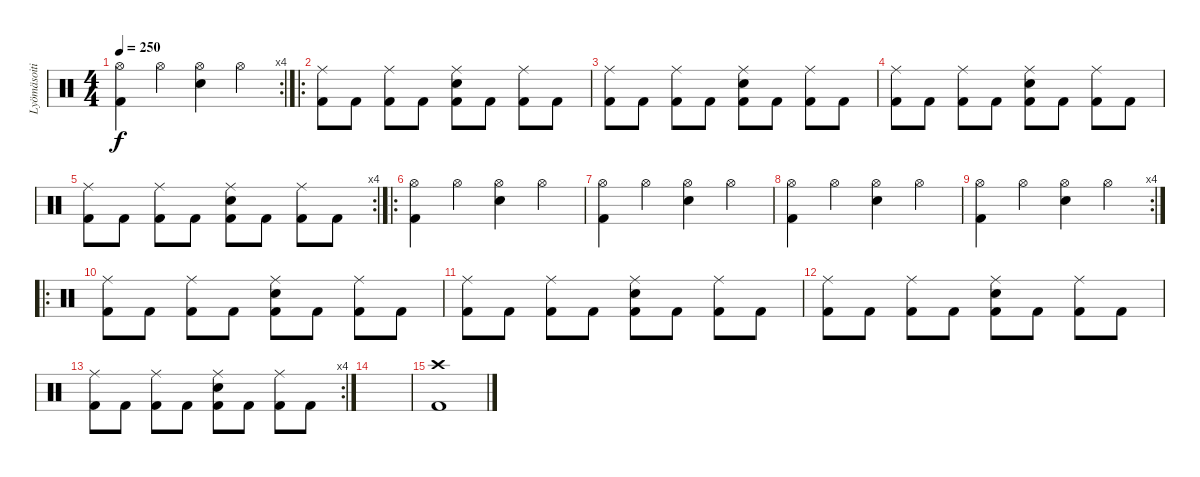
\track ("Lyömäsoitin" "Lyömäsoiti") {instrument percussion}
\staff {score}
\articulation defaults
\rc 4
\ts (4 4)
\tempo 250
\clef neutral
\ks c
("Hi-Hat (open)" "Kick (hit) 2").4{dy f} "Hi-Hat (open)".4 ("Hi-Hat (open)" "Electric Snare (hit)").4 "Hi-Hat (open)".4 |
\ro
("Ride (middle)" "Kick (hit) 2").8 "Kick (hit) 2".8 ("Ride (middle)" "Kick (hit) 2").8 "Kick (hit) 2".8 ("Ride (middle)" "Electric Snare (hit)" "Kick (hit) 2").8 "Kick (hit) 2".8 ("Ride (middle)" "Kick (hit) 2").8 "Kick (hit) 2".8 |
("Ride (middle)" "Kick (hit) 2").8 "Kick (hit) 2".8 ("Ride (middle)" "Kick (hit) 2").8 "Kick (hit) 2".8 ("Ride (middle)" "Electric Snare (hit)" "Kick (hit) 2").8 "Kick (hit) 2".8 ("Ride (middle)" "Kick (hit) 2").8 "Kick (hit) 2".8 |
("Ride (middle)" "Kick (hit) 2").8 "Kick (hit) 2".8 ("Ride (middle)" "Kick (hit) 2").8 "Kick (hit) 2".8 ("Ride (middle)" "Electric Snare (hit)" "Kick (hit) 2").8 "Kick (hit) 2".8 ("Ride (middle)" "Kick (hit) 2").8 "Kick (hit) 2".8 |
\rc 4
("Ride (middle)" "Kick (hit) 2").8 "Kick (hit) 2".8 ("Ride (middle)" "Kick (hit) 2").8 "Kick (hit) 2".8 ("Ride (middle)" "Electric Snare (hit)" "Kick (hit) 2").8 "Kick (hit) 2".8 ("Ride (middle)" "Kick (hit) 2").8 "Kick (hit) 2".8 |
\ro
("Hi-Hat (open)" "Kick (hit) 2").4 "Hi-Hat (open)".4 ("Hi-Hat (open)" "Electric Snare (hit)").4 "Hi-Hat (open)".4 |
("Hi-Hat (open)" "Kick (hit) 2").4 "Hi-Hat (open)".4 ("Hi-Hat (open)" "Electric Snare (hit)").4 "Hi-Hat (open)".4 |
("Hi-Hat (open)" "Kick (hit) 2").4 "Hi-Hat (open)".4 ("Hi-Hat (open)" "Electric Snare (hit)").4 "Hi-Hat (open)".4 |
\rc 4
("Hi-Hat (open)" "Kick (hit) 2").4 "Hi-Hat (open)".4 ("Hi-Hat (open)" "Electric Snare (hit)").4 "Hi-Hat (open)".4 |
\ro
("Ride (middle)" "Kick (hit) 2").8 "Kick (hit) 2".8 ("Ride (middle)" "Kick (hit) 2").8 "Kick (hit) 2".8 ("Ride (middle)" "Electric Snare (hit)" "Kick (hit) 2").8 "Kick (hit) 2".8 ("Ride (middle)" "Kick (hit) 2").8 "Kick (hit) 2".8 |
("Ride (middle)" "Kick (hit) 2").8 "Kick (hit) 2".8 ("Ride (middle)" "Kick (hit) 2").8 "Kick (hit) 2".8 ("Ride (middle)" "Electric Snare (hit)" "Kick (hit) 2").8 "Kick (hit) 2".8 ("Ride (middle)" "Kick (hit) 2").8 "Kick (hit) 2".8 |
("Ride (middle)" "Kick (hit) 2").8 "Kick (hit) 2".8 ("Ride (middle)" "Kick (hit) 2").8 "Kick (hit) 2".8 ("Ride (middle)" "Electric Snare (hit)" "Kick (hit) 2").8 "Kick (hit) 2".8 ("Ride (middle)" "Kick (hit) 2").8 "Kick (hit) 2".8 |
\rc 4
("Ride (middle)" "Kick (hit) 2").8 "Kick (hit) 2".8 ("Ride (middle)" "Kick (hit) 2").8 "Kick (hit) 2".8 ("Ride (middle)" "Electric Snare (hit)" "Kick (hit) 2").8 "Kick (hit) 2".8 ("Ride (middle)" "Kick (hit) 2").8 "Kick (hit) 2".8 |
|
("Crash high (hit)" "Kick (hit) 2").1
